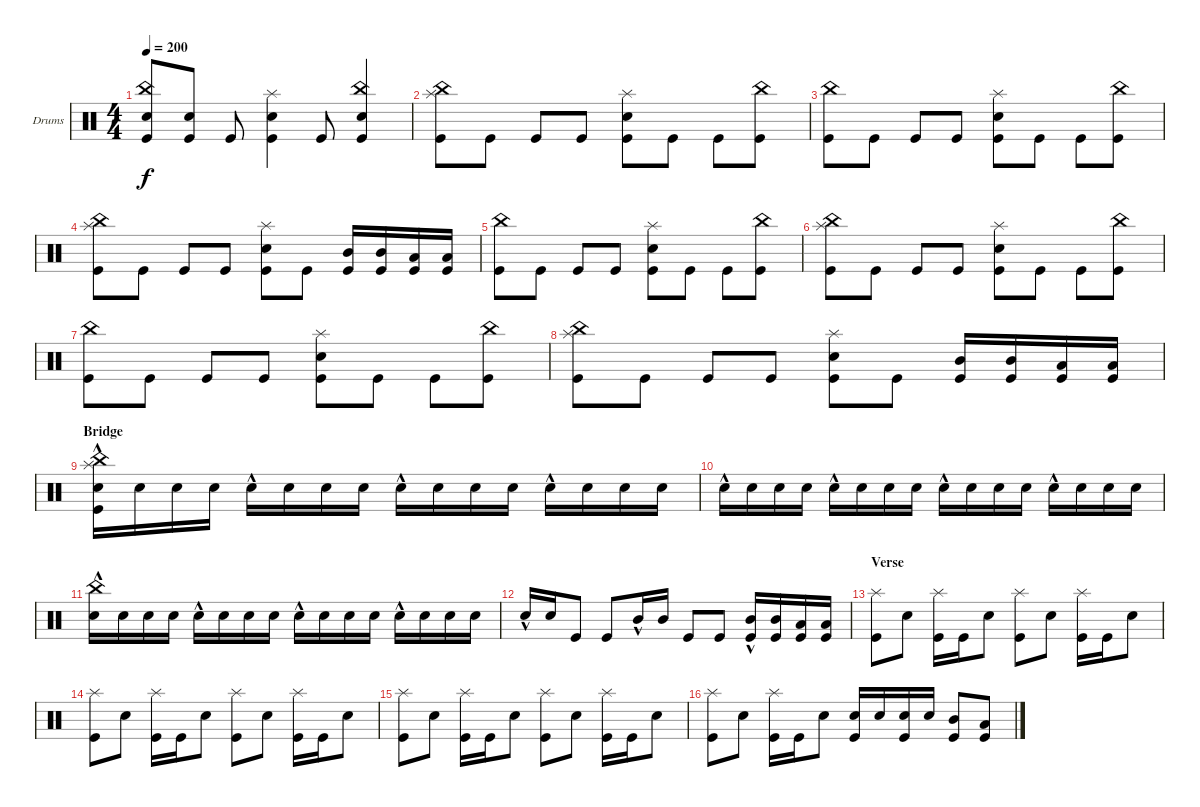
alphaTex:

\defaultSystemsLayout 4
\bracketExtendMode groupsimilarinstruments
\firstSystemTrackNameOrientation horizontal
\otherSystemsTrackNameOrientation horizontal
\track ("Drumkit" "Drums") {instrument percussion}
\staff {score}
\articulation defaults
\ts (4 4)
\tempo 200
\clef neutral
\ks c
("Kick (hit)" "China (hit)" "Snare (hit) 2").8{dy f} ("Kick (hit)" "Snare (hit) 2").8 "Kick (hit)".8 ("Kick (hit)" "Splash (hit)" "Snare (hit) 2").4 "Kick (hit)".8 ("Kick (hit)" "China (hit)" "Snare (hit) 2").4 |
("Kick (hit)" "Splash (hit)" "China (hit)").8 "Kick (hit)".8 "Kick (hit)".8 "Kick (hit)".8 ("Kick (hit)" "Splash (hit)" "Snare (hit) 2").8 "Kick (hit)".8 "Kick (hit)".8 ("Kick (hit)" "China (hit)").8 |
("Kick (hit)" "China (hit)").8 "Kick (hit)".8 "Kick (hit)".8 "Kick (hit)".8 ("Kick (hit)" "Splash (hit)" "Snare (hit) 2").8 "Kick (hit)".8 "Kick (hit)".8 ("Kick (hit)" "China (hit)").8 |
("Kick (hit)" "Splash (hit)" "China (hit)").8 "Kick (hit)".8 "Kick (hit)".8 "Kick (hit)".8 ("Kick (hit)" "Splash (hit)" "Snare (hit) 2").8 "Kick (hit)".8 ("Kick (hit)" "Mid Tom (hit)").16 ("Kick (hit)" "Mid Tom (hit)").16 ("Low Tom (hit)" "Kick (hit)").16 ("Low Tom (hit)" "Kick (hit)").16 |
("Kick (hit)" "China (hit)").8 "Kick (hit)".8 "Kick (hit)".8 "Kick (hit)".8 ("Kick (hit)" "Splash (hit)" "Snare (hit) 2").8 "Kick (hit)".8 "Kick (hit)".8 ("Kick (hit)" "China (hit)").8 |
("Kick (hit)" "Splash (hit)" "China (hit)").8 "Kick (hit)".8 "Kick (hit)".8 "Kick (hit)".8 ("Kick (hit)" "Splash (hit)" "Snare (hit) 2").8 "Kick (hit)".8 "Kick (hit)".8 ("Kick (hit)" "China (hit)").8 |
("Kick (hit)" "China (hit)").8 "Kick (hit)".8 "Kick (hit)".8 "Kick (hit)".8 ("Kick (hit)" "Splash (hit)" "Snare (hit) 2").8 "Kick (hit)".8 "Kick (hit)".8 ("Kick (hit)" "China (hit)").8 |
("Kick (hit)" "Splash (hit)" "China (hit)").8 "Kick (hit)".8 "Kick (hit)".8 "Kick (hit)".8 ("Kick (hit)" "Splash (hit)" "Snare (hit) 2").8 "Kick (hit)".8 ("Kick (hit)" "Mid Tom (hit)").16 ("Kick (hit)" "Mid Tom (hit)").16 ("Low Tom (hit)" "Kick (hit)").16 ("Low Tom (hit)" "Kick (hit)").16 |
\section ("" "Bridge")
("Splash (hit)" "China (hit)" "Snare (hit) 2"{hac} "Kick (hit)").16 "Snare (hit) 2".16 "Snare (hit) 2".16 "Snare (hit) 2".16 "Snare (hit) 2"{hac}.16 "Snare (hit) 2".16 "Snare (hit) 2".16 "Snare (hit) 2".16 "Snare (hit) 2"{hac}.16 "Snare (hit) 2".16 "Snare (hit) 2".16 "Snare (hit) 2".16 "Snare (hit) 2"{hac}.16 "Snare (hit) 2".16 "Snare (hit) 2".16 "Snare (hit) 2".16 |
"Snare (hit) 2"{hac}.16 "Snare (hit) 2".16 "Snare (hit) 2".16 "Snare (hit) 2".16 "Snare (hit) 2"{hac}.16 "Snare (hit) 2".16 "Snare (hit) 2".16 "Snare (hit) 2".16 "Snare (hit) 2"{hac}.16 "Snare (hit) 2".16 "Snare (hit) 2".16 "Snare (hit) 2".16 "Snare (hit) 2"{hac}.16 "Snare (hit) 2".16 "Snare (hit) 2".16 "Snare (hit) 2".16 |
("Snare (hit) 2"{hac} "China (hit)").16 "Snare (hit) 2".16 "Snare (hit) 2".16 "Snare (hit) 2".16 "Snare (hit) 2"{hac}.16 "Snare (hit) 2".16 "Snare (hit) 2".16 "Snare (hit) 2".16 "Snare (hit) 2"{hac}.16 "Snare (hit) 2".16 "Snare (hit) 2".16 "Snare (hit) 2".16 "Snare (hit) 2"{hac}.16 "Snare (hit) 2".16 "Snare (hit) 2".16 "Snare (hit) 2".16 |
"Snare (hit) 2"{hac}.16 "Snare (hit) 2".16 "Kick (hit)".8 "Kick (hit)".8 "Mid Tom (hit)"{hac}.16 "Mid Tom (hit)".16 "Kick (hit)".8 "Kick (hit)".8 ("Mid Tom (hit)"{hac} "Kick (hit)").16 ("Mid Tom (hit)" "Kick (hit)").16 ("Low Tom (hit)" "Kick (hit)").16 ("Low Tom (hit)" "Kick (hit)").16 |
\section ("" "Verse")
("Splash (hit)" "Kick (hit)").8 "Snare (hit) 2".8 ("Splash (hit)" "Kick (hit)").16 "Kick (hit)".16 "Snare (hit) 2".8 ("Splash (hit)" "Kick (hit)").8 "Snare (hit) 2".8 ("Splash (hit)" "Kick (hit)").16 "Kick (hit)".16 "Snare (hit) 2".8 |
("Splash (hit)" "Kick (hit)").8 "Snare (hit) 2".8 ("Splash (hit)" "Kick (hit)").16 "Kick (hit)".16 "Snare (hit) 2".8 ("Splash (hit)" "Kick (hit)").8 "Snare (hit) 2".8 ("Splash (hit)" "Kick (hit)").16 "Kick (hit)".16 "Snare (hit) 2".8 |
("Splash (hit)" "Kick (hit)").8 "Snare (hit) 2".8 ("Splash (hit)" "Kick (hit)").16 "Kick (hit)".16 "Snare (hit) 2".8 ("Splash (hit)" "Kick (hit)").8 "Snare (hit) 2".8 ("Splash (hit)" "Kick (hit)").16 "Kick (hit)".16 "Snare (hit) 2".8 |
("Splash (hit)" "Kick (hit)").8 "Snare (hit) 2".8 ("Splash (hit)" "Kick (hit)").16 "Kick (hit)".16 "Snare (hit) 2".8 ("Kick (hit)" "Snare (hit) 2").16 "Snare (hit) 2".16 ("Snare (hit) 2" "Kick (hit)").16 "Snare (hit) 2".16 ("Kick (hit)" "Mid Tom (hit)").8 ("Low Tom (hit)" "Kick (hit)").8
